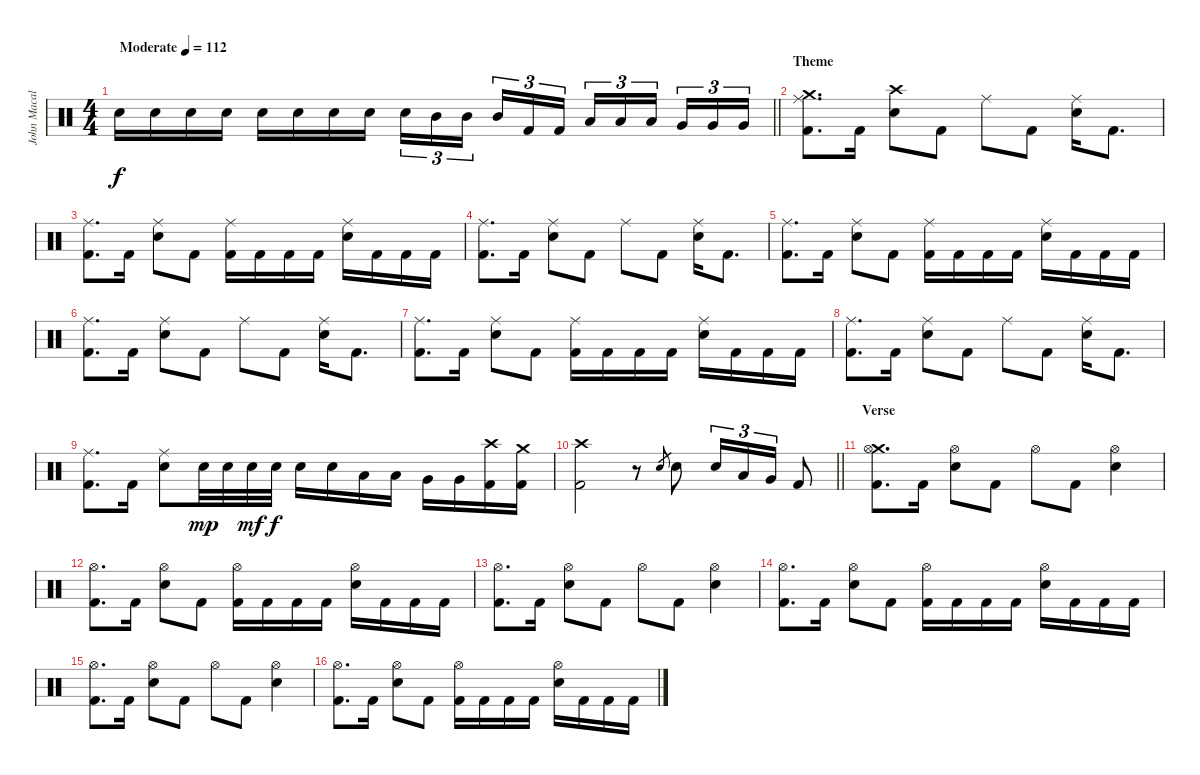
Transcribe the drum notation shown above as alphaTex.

\track ("John Macaluso" "John Macal") {instrument percussion}
\staff {score}
\articulation defaults
\ts (4 4)
\tempo (112 "Moderate")
\clef neutral
\barLineRight lightlight
\ks c "Snare (hit) 2".16{dy f} "Snare (hit) 2".16 "Snare (hit) 2".16 "Snare (hit) 2".16 "Snare (hit) 2".16 "Snare (hit) 2".16 "Snare (hit) 2".16 "Snare (hit) 2".16 "Snare (hit) 2".16{tu (3 2)} "Mid Tom (hit)".16{tu (3 2)} "Mid Tom (hit)".16{tu (3 2) beam splitsecondary} "Mid Tom (hit)".16{tu (3 2)} "Kick (hit) 2".16{tu (3 2)} "Kick (hit) 2".16{tu (3 2)} "Low Tom (hit)".16{tu (3 2)} "Low Tom (hit)".16{tu (3 2)} "Low Tom (hit)".16{tu (3 2) beam splitsecondary} "Very Low Tom (hit)".16{tu (3 2)} "Very Low Tom (hit)".16{tu (3 2)} "Very Low Tom (hit)".16{tu (3 2)}
|
\section ("" "Theme")
("Crash medium (hit)" "Ride (middle)" "Kick (hit) 2").8{d} "Kick (hit) 2".16 ("Crash high (hit)" "Snare (hit) 2").8 "Kick (hit) 2".8 "Ride (middle)".8 "Kick (hit) 2".8 ("Ride (middle)" "Snare (hit) 2").16 "Kick (hit) 2".8{d} |
("Ride (middle)" "Kick (hit) 2").8{d} "Kick (hit) 2".16 ("Ride (middle)" "Snare (hit) 2").8 "Kick (hit) 2".8 ("Ride (middle)" "Kick (hit) 2").16 "Kick (hit) 2".16 "Kick (hit) 2".16 "Kick (hit) 2".16 ("Ride (middle)" "Snare (hit) 2").16 "Kick (hit) 2".16 "Kick (hit) 2".16 "Kick (hit) 2".16 |
("Ride (middle)" "Kick (hit) 2").8{d} "Kick (hit) 2".16 ("Ride (middle)" "Snare (hit) 2").8 "Kick (hit) 2".8 "Ride (middle)".8 "Kick (hit) 2".8 ("Ride (middle)" "Snare (hit) 2").16 "Kick (hit) 2".8{d} |
("Ride (middle)" "Kick (hit) 2").8{d} "Kick (hit) 2".16 ("Ride (middle)" "Snare (hit) 2").8 "Kick (hit) 2".8 ("Ride (middle)" "Kick (hit) 2").16 "Kick (hit) 2".16 "Kick (hit) 2".16 "Kick (hit) 2".16 ("Ride (middle)" "Snare (hit) 2").16 "Kick (hit) 2".16 "Kick (hit) 2".16 "Kick (hit) 2".16 |
("Ride (middle)" "Kick (hit) 2").8{d} "Kick (hit) 2".16 ("Ride (middle)" "Snare (hit) 2").8 "Kick (hit) 2".8 "Ride (middle)".8 "Kick (hit) 2".8 ("Ride (middle)" "Snare (hit) 2").16 "Kick (hit) 2".8{d} |
("Ride (middle)" "Kick (hit) 2").8{d} "Kick (hit) 2".16 ("Ride (middle)" "Snare (hit) 2").8 "Kick (hit) 2".8 ("Ride (middle)" "Kick (hit) 2").16 "Kick (hit) 2".16 "Kick (hit) 2".16 "Kick (hit) 2".16 ("Ride (middle)" "Snare (hit) 2").16 "Kick (hit) 2".16 "Kick (hit) 2".16 "Kick (hit) 2".16 |
("Ride (middle)" "Kick (hit) 2").8{d} "Kick (hit) 2".16 ("Ride (middle)" "Snare (hit) 2").8 "Kick (hit) 2".8 "Ride (middle)".8 "Kick (hit) 2".8 ("Ride (middle)" "Snare (hit) 2").16 "Kick (hit) 2".8{d} |
("Ride (middle)" "Kick (hit) 2").8{d} "Kick (hit) 2".16 ("Ride (middle)" "Snare (hit) 2").8 "Snare (hit) 2".32{dy mp} "Snare (hit) 2".32 "Snare (hit) 2".32{dy mf} "Snare (hit) 2".32{dy f} "Snare (hit) 2".16 "Snare (hit) 2".16 "Low Tom (hit)".16 "Low Tom (hit)".16 "Very Low Tom (hit)".16 "Very Low Tom (hit)".16 ("Crash high (hit)" "Kick (hit) 2").16 ("Crash medium (hit)" "Kick (hit) 2").16 |
\barLineRight lightlight
("Crash high (hit)" "Kick (hit) 2").2 r.8 "Snare (hit) 2".8{gr} "Snare (hit) 2".8 "Snare (hit) 2".16{tu (3 2)} "Low Tom (hit)".16{tu (3 2)} "Very Low Tom (hit)".16{tu (3 2)} "Kick (hit) 2".8 |
\section ("" "Verse")
("Crash medium (hit)" "Hi-Hat (open)" "Kick (hit) 2").8{d} "Kick (hit) 2".16 ("Hi-Hat (open)" "Snare (hit) 2").8 "Kick (hit) 2".8 "Hi-Hat (open)".8 "Kick (hit) 2".8 ("Hi-Hat (open)" "Snare (hit) 2").4 |
("Hi-Hat (open)" "Kick (hit) 2").8{d} "Kick (hit) 2".16 ("Hi-Hat (open)" "Snare (hit) 2").8 "Kick (hit) 2".8 ("Hi-Hat (open)" "Kick (hit) 2").16 "Kick (hit) 2".16 "Kick (hit) 2".16 "Kick (hit) 2".16 ("Hi-Hat (open)" "Snare (hit) 2").16 "Kick (hit) 2".16 "Kick (hit) 2".16 "Kick (hit) 2".16 |
("Hi-Hat (open)" "Kick (hit) 2").8{d} "Kick (hit) 2".16 ("Hi-Hat (open)" "Snare (hit) 2").8 "Kick (hit) 2".8 "Hi-Hat (open)".8 "Kick (hit) 2".8 ("Hi-Hat (open)" "Snare (hit) 2").4 |
("Hi-Hat (open)" "Kick (hit) 2").8{d} "Kick (hit) 2".16 ("Hi-Hat (open)" "Snare (hit) 2").8 "Kick (hit) 2".8 ("Hi-Hat (open)" "Kick (hit) 2").16 "Kick (hit) 2".16 "Kick (hit) 2".16 "Kick (hit) 2".16 ("Hi-Hat (open)" "Snare (hit) 2").16 "Kick (hit) 2".16 "Kick (hit) 2".16 "Kick (hit) 2".16 |
("Hi-Hat (open)" "Kick (hit) 2").8{d} "Kick (hit) 2".16 ("Hi-Hat (open)" "Snare (hit) 2").8 "Kick (hit) 2".8 "Hi-Hat (open)".8 "Kick (hit) 2".8 ("Hi-Hat (open)" "Snare (hit) 2").4 |
("Hi-Hat (open)" "Kick (hit) 2").8{d} "Kick (hit) 2".16 ("Hi-Hat (open)" "Snare (hit) 2").8 "Kick (hit) 2".8 ("Hi-Hat (open)" "Kick (hit) 2").16 "Kick (hit) 2".16 "Kick (hit) 2".16 "Kick (hit) 2".16 ("Hi-Hat (open)" "Snare (hit) 2").16 "Kick (hit) 2".16 "Kick (hit) 2".16 "Kick (hit) 2".16
